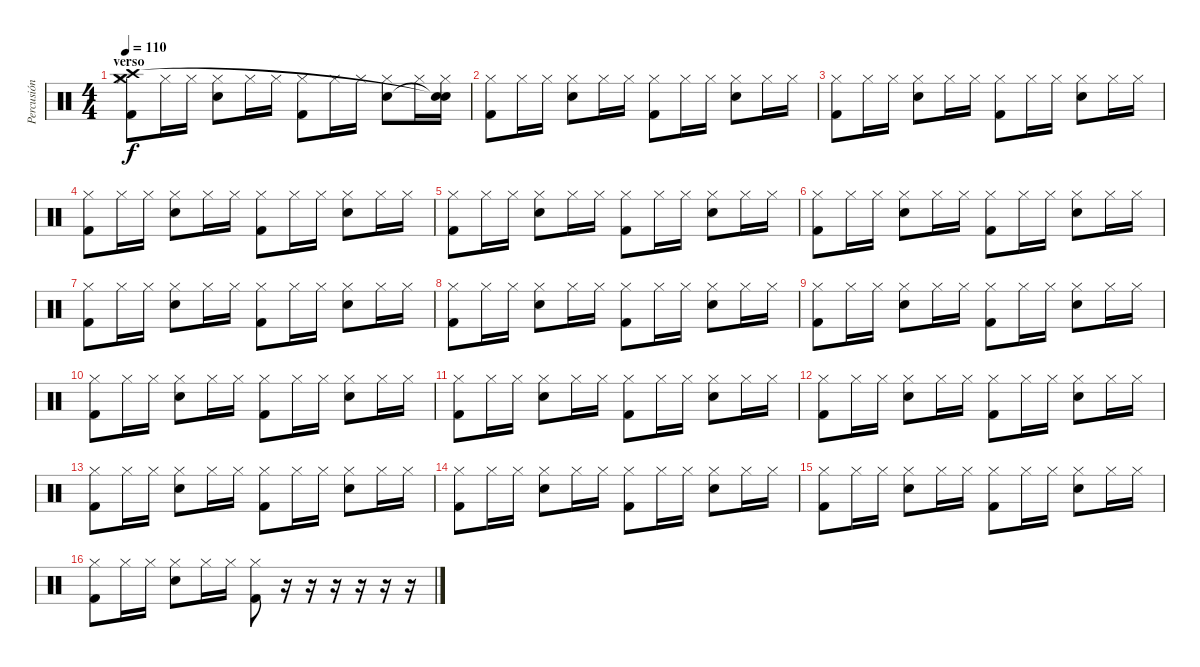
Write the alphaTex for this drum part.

\track ("Percusión" "Percusión") {instrument percussion}
\staff {score}
\articulation defaults
\ts (4 4)
\section ("" "verso")
\tempo 110
\clef neutral
\ks c
("Hi-Hat (closed)" "Kick (hit) 2" "Crash high (hit)" "Crash medium (hit)").8{dy f} "Hi-Hat (closed)".16 "Hi-Hat (closed)".16 ("Hi-Hat (closed)" "Snare (hit) 2").8 "Hi-Hat (closed)".16 "Hi-Hat (closed)".16 ("Hi-Hat (closed)" "Kick (hit) 2").8 "Hi-Hat (closed)".16 "Hi-Hat (closed)".16 ("Hi-Hat (closed)" "Snare (hit) 2").8 "Hi-Hat (closed)".16 ("Hi-Hat (closed)" "Snare (hit)"{t} "Snare (hit)"{t}).16 |
("Hi-Hat (closed)" "Kick (hit) 2").8 "Hi-Hat (closed)".16 "Hi-Hat (closed)".16 ("Hi-Hat (closed)" "Snare (hit) 2").8 "Hi-Hat (closed)".16 "Hi-Hat (closed)".16 ("Hi-Hat (closed)" "Kick (hit) 2").8 "Hi-Hat (closed)".16 "Hi-Hat (closed)".16 ("Hi-Hat (closed)" "Snare (hit) 2").8 "Hi-Hat (closed)".16 "Hi-Hat (closed)".16 |
("Hi-Hat (closed)" "Kick (hit) 2").8 "Hi-Hat (closed)".16 "Hi-Hat (closed)".16 ("Hi-Hat (closed)" "Snare (hit) 2").8 "Hi-Hat (closed)".16 "Hi-Hat (closed)".16 ("Hi-Hat (closed)" "Kick (hit) 2").8 "Hi-Hat (closed)".16 "Hi-Hat (closed)".16 ("Hi-Hat (closed)" "Snare (hit) 2").8 "Hi-Hat (closed)".16 "Hi-Hat (closed)".16 |
("Hi-Hat (closed)" "Kick (hit) 2").8 "Hi-Hat (closed)".16 "Hi-Hat (closed)".16 ("Hi-Hat (closed)" "Snare (hit) 2").8 "Hi-Hat (closed)".16 "Hi-Hat (closed)".16 ("Hi-Hat (closed)" "Kick (hit) 2").8 "Hi-Hat (closed)".16 "Hi-Hat (closed)".16 ("Hi-Hat (closed)" "Snare (hit) 2").8 "Hi-Hat (closed)".16 "Hi-Hat (closed)".16 |
("Hi-Hat (closed)" "Kick (hit) 2").8 "Hi-Hat (closed)".16 "Hi-Hat (closed)".16 ("Hi-Hat (closed)" "Snare (hit) 2").8 "Hi-Hat (closed)".16 "Hi-Hat (closed)".16 ("Hi-Hat (closed)" "Kick (hit) 2").8 "Hi-Hat (closed)".16 "Hi-Hat (closed)".16 ("Hi-Hat (closed)" "Snare (hit) 2").8 "Hi-Hat (closed)".16 "Hi-Hat (closed)".16 |
("Hi-Hat (closed)" "Kick (hit) 2").8 "Hi-Hat (closed)".16 "Hi-Hat (closed)".16 ("Hi-Hat (closed)" "Snare (hit) 2").8 "Hi-Hat (closed)".16 "Hi-Hat (closed)".16 ("Hi-Hat (closed)" "Kick (hit) 2").8 "Hi-Hat (closed)".16 "Hi-Hat (closed)".16 ("Hi-Hat (closed)" "Snare (hit) 2").8 "Hi-Hat (closed)".16 "Hi-Hat (closed)".16 |
("Hi-Hat (closed)" "Kick (hit) 2").8 "Hi-Hat (closed)".16 "Hi-Hat (closed)".16 ("Hi-Hat (closed)" "Snare (hit) 2").8 "Hi-Hat (closed)".16 "Hi-Hat (closed)".16 ("Hi-Hat (closed)" "Kick (hit) 2").8 "Hi-Hat (closed)".16 "Hi-Hat (closed)".16 ("Hi-Hat (closed)" "Snare (hit) 2").8 "Hi-Hat (closed)".16 "Hi-Hat (closed)".16 |
("Hi-Hat (closed)" "Kick (hit) 2").8 "Hi-Hat (closed)".16 "Hi-Hat (closed)".16 ("Hi-Hat (closed)" "Snare (hit) 2").8 "Hi-Hat (closed)".16 "Hi-Hat (closed)".16 ("Hi-Hat (closed)" "Kick (hit) 2").8 "Hi-Hat (closed)".16 "Hi-Hat (closed)".16 ("Hi-Hat (closed)" "Snare (hit) 2").8 "Hi-Hat (closed)".16 "Hi-Hat (closed)".16 |
("Hi-Hat (closed)" "Kick (hit) 2").8 "Hi-Hat (closed)".16 "Hi-Hat (closed)".16 ("Hi-Hat (closed)" "Snare (hit) 2").8 "Hi-Hat (closed)".16 "Hi-Hat (closed)".16 ("Hi-Hat (closed)" "Kick (hit) 2").8 "Hi-Hat (closed)".16 "Hi-Hat (closed)".16 ("Hi-Hat (closed)" "Snare (hit) 2").8 "Hi-Hat (closed)".16 "Hi-Hat (closed)".16 |
("Hi-Hat (closed)" "Kick (hit) 2").8 "Hi-Hat (closed)".16 "Hi-Hat (closed)".16 ("Hi-Hat (closed)" "Snare (hit) 2").8 "Hi-Hat (closed)".16 "Hi-Hat (closed)".16 ("Hi-Hat (closed)" "Kick (hit) 2").8 "Hi-Hat (closed)".16 "Hi-Hat (closed)".16 ("Hi-Hat (closed)" "Snare (hit) 2").8 "Hi-Hat (closed)".16 "Hi-Hat (closed)".16 |
("Hi-Hat (closed)" "Kick (hit) 2").8 "Hi-Hat (closed)".16 "Hi-Hat (closed)".16 ("Hi-Hat (closed)" "Snare (hit) 2").8 "Hi-Hat (closed)".16 "Hi-Hat (closed)".16 ("Hi-Hat (closed)" "Kick (hit) 2").8 "Hi-Hat (closed)".16 "Hi-Hat (closed)".16 ("Hi-Hat (closed)" "Snare (hit) 2").8 "Hi-Hat (closed)".16 "Hi-Hat (closed)".16 |
("Hi-Hat (closed)" "Kick (hit) 2").8 "Hi-Hat (closed)".16 "Hi-Hat (closed)".16 ("Hi-Hat (closed)" "Snare (hit) 2").8 "Hi-Hat (closed)".16 "Hi-Hat (closed)".16 ("Hi-Hat (closed)" "Kick (hit) 2").8 "Hi-Hat (closed)".16 "Hi-Hat (closed)".16 ("Hi-Hat (closed)" "Snare (hit) 2").8 "Hi-Hat (closed)".16 "Hi-Hat (closed)".16 |
("Hi-Hat (closed)" "Kick (hit) 2").8 "Hi-Hat (closed)".16 "Hi-Hat (closed)".16 ("Hi-Hat (closed)" "Snare (hit) 2").8 "Hi-Hat (closed)".16 "Hi-Hat (closed)".16 ("Hi-Hat (closed)" "Kick (hit) 2").8 "Hi-Hat (closed)".16 "Hi-Hat (closed)".16 ("Hi-Hat (closed)" "Snare (hit) 2").8 "Hi-Hat (closed)".16 "Hi-Hat (closed)".16 |
("Hi-Hat (closed)" "Kick (hit) 2").8 "Hi-Hat (closed)".16 "Hi-Hat (closed)".16 ("Hi-Hat (closed)" "Snare (hit) 2").8 "Hi-Hat (closed)".16 "Hi-Hat (closed)".16 ("Hi-Hat (closed)" "Kick (hit) 2").8 "Hi-Hat (closed)".16 "Hi-Hat (closed)".16 ("Hi-Hat (closed)" "Snare (hit) 2").8 "Hi-Hat (closed)".16 "Hi-Hat (closed)".16 |
("Hi-Hat (closed)" "Kick (hit) 2").8 "Hi-Hat (closed)".16 "Hi-Hat (closed)".16 ("Hi-Hat (closed)" "Snare (hit) 2").8 "Hi-Hat (closed)".16 "Hi-Hat (closed)".16 ("Hi-Hat (closed)" "Kick (hit) 2").8 "Hi-Hat (closed)".16 "Hi-Hat (closed)".16 ("Hi-Hat (closed)" "Snare (hit) 2").8 "Hi-Hat (closed)".16 "Hi-Hat (closed)".16 |
("Hi-Hat (closed)" "Kick (hit) 2").8 "Hi-Hat (closed)".16 "Hi-Hat (closed)".16 ("Hi-Hat (closed)" "Snare (hit) 2").8 "Hi-Hat (closed)".16 "Hi-Hat (closed)".16 ("Hi-Hat (closed)" "Kick (hit) 2").8 r.16 r.16 r.16 r.16 r.16 r.16
